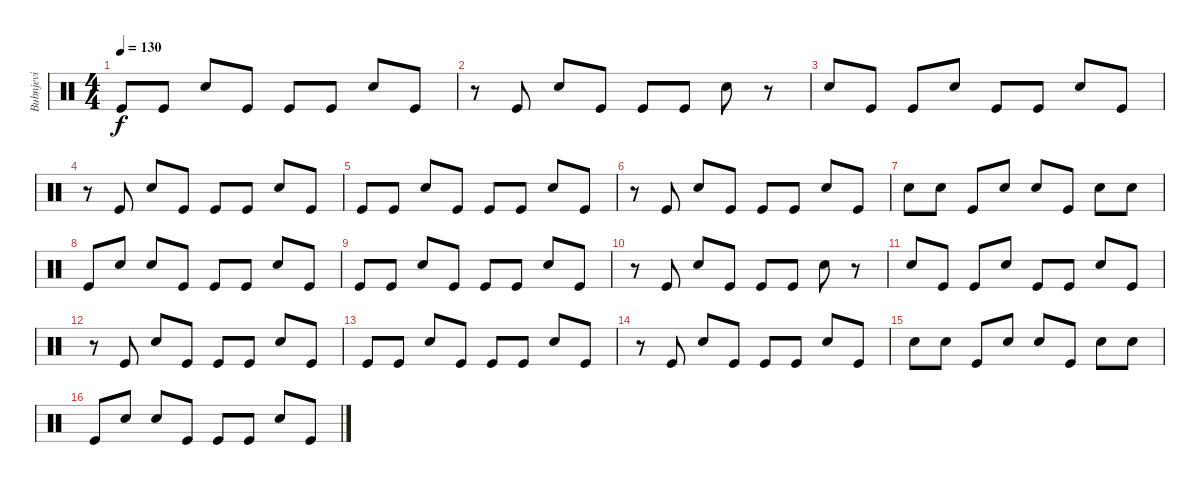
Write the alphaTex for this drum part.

\track ("Bubnjevi" "Bubnjevi") {instrument percussion}
\staff {score}
\articulation defaults
\ts (4 4)
\tempo 130
\clef neutral
\ks c "Kick (hit)".8{dy f} "Kick (hit)".8 "Snare (hit) 2".8 "Kick (hit)".8 "Kick (hit)".8 "Kick (hit)".8 "Snare (hit) 2".8 "Kick (hit)".8
|
r.8 "Kick (hit)".8 "Snare (hit) 2".8 "Kick (hit)".8 "Kick (hit)".8 "Kick (hit)".8 "Snare (hit) 2".8 r.8 |
"Snare (hit) 2".8 "Kick (hit)".8 "Kick (hit)".8 "Snare (hit) 2".8 "Kick (hit)".8 "Kick (hit)".8 "Snare (hit) 2".8 "Kick (hit)".8 |
r.8 "Kick (hit)".8 "Snare (hit) 2".8 "Kick (hit)".8 "Kick (hit)".8 "Kick (hit)".8 "Snare (hit) 2".8 "Kick (hit)".8 |
"Kick (hit)".8 "Kick (hit)".8 "Snare (hit) 2".8 "Kick (hit)".8 "Kick (hit)".8 "Kick (hit)".8 "Snare (hit) 2".8 "Kick (hit)".8 |
r.8 "Kick (hit)".8 "Snare (hit) 2".8 "Kick (hit)".8 "Kick (hit)".8 "Kick (hit)".8 "Snare (hit) 2".8 "Kick (hit)".8 |
"Snare (hit) 2".8 "Snare (hit) 2".8 "Kick (hit)".8 "Snare (hit) 2".8 "Snare (hit) 2".8 "Kick (hit)".8 "Snare (hit) 2".8 "Snare (hit) 2".8 |
"Kick (hit)".8 "Snare (hit) 2".8 "Snare (hit) 2".8 "Kick (hit)".8 "Kick (hit)".8 "Kick (hit)".8 "Snare (hit) 2".8 "Kick (hit)".8 |
"Kick (hit)".8 "Kick (hit)".8 "Snare (hit) 2".8 "Kick (hit)".8 "Kick (hit)".8 "Kick (hit)".8 "Snare (hit) 2".8 "Kick (hit)".8 |
r.8 "Kick (hit)".8 "Snare (hit) 2".8 "Kick (hit)".8 "Kick (hit)".8 "Kick (hit)".8 "Snare (hit) 2".8 r.8 |
"Snare (hit) 2".8 "Kick (hit)".8 "Kick (hit)".8 "Snare (hit) 2".8 "Kick (hit)".8 "Kick (hit)".8 "Snare (hit) 2".8 "Kick (hit)".8 |
r.8 "Kick (hit)".8 "Snare (hit) 2".8 "Kick (hit)".8 "Kick (hit)".8 "Kick (hit)".8 "Snare (hit) 2".8 "Kick (hit)".8 |
"Kick (hit)".8 "Kick (hit)".8 "Snare (hit) 2".8 "Kick (hit)".8 "Kick (hit)".8 "Kick (hit)".8 "Snare (hit) 2".8 "Kick (hit)".8 |
r.8 "Kick (hit)".8 "Snare (hit) 2".8 "Kick (hit)".8 "Kick (hit)".8 "Kick (hit)".8 "Snare (hit) 2".8 "Kick (hit)".8 |
"Snare (hit) 2".8 "Snare (hit) 2".8 "Kick (hit)".8 "Snare (hit) 2".8 "Snare (hit) 2".8 "Kick (hit)".8 "Snare (hit) 2".8 "Snare (hit) 2".8 |
"Kick (hit)".8 "Snare (hit) 2".8 "Snare (hit) 2".8 "Kick (hit)".8 "Kick (hit)".8 "Kick (hit)".8 "Snare (hit) 2".8 "Kick (hit)".8
